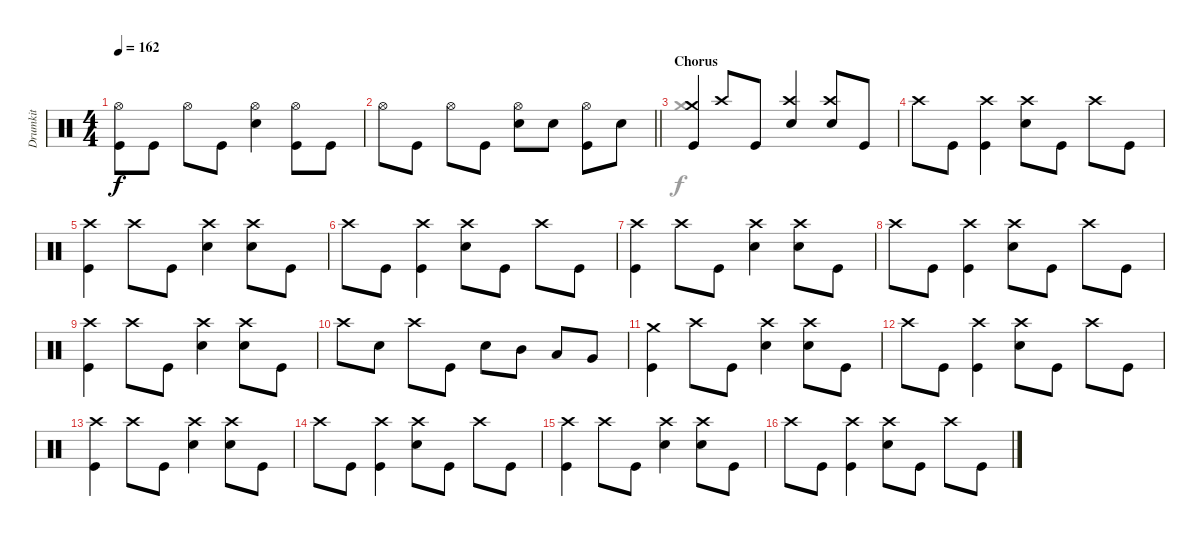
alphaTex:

\track ("Drumkit" "Drumkit") {instrument percussion}
\staff {score}
\articulation defaults
\voice
\ts (4 4)
\tempo 162
\clef neutral
\ks c
("Hi-Hat (open)" "Kick (hit)").8{dy f} "Kick (hit)".8 "Hi-Hat (open)".8 "Kick (hit)".8 ("Snare (hit) 2" "Hi-Hat (open)").4 ("Kick (hit)" "Hi-Hat (open)").8 "Kick (hit)".8 |
\barLineRight lightlight "Hi-Hat (open)".8 "Kick (hit)".8 "Hi-Hat (open)".8 "Kick (hit)".8
("Snare (hit) 2" "Hi-Hat (open)").8 "Snare (hit) 2".8 ("Hi-Hat (open)" "Kick (hit)").8 "Snare (hit) 2".8 |
\section ("" "Chorus")
("Kick (hit)" "Crash medium (hit)").4 "Crash high (hit)".8 "Kick (hit)".8 ("Snare (hit) 2" "Crash high (hit)").4 ("Snare (hit) 2" "Crash high (hit)").8 "Kick (hit)".8 |
"Crash high (hit)".8 "Kick (hit)".8 ("Kick (hit)" "Crash high (hit)").4 ("Snare (hit) 2" "Crash high (hit)").8 "Kick (hit)".8 "Crash high (hit)".8 "Kick (hit)".8 |
("Kick (hit)" "Crash high (hit)").4 "Crash high (hit)".8 "Kick (hit)".8 ("Snare (hit) 2" "Crash high (hit)").4 ("Snare (hit) 2" "Crash high (hit)").8 "Kick (hit)".8 |
"Crash high (hit)".8 "Kick (hit)".8 ("Kick (hit)" "Crash high (hit)").4 ("Snare (hit) 2" "Crash high (hit)").8 "Kick (hit)".8 "Crash high (hit)".8 "Kick (hit)".8 |
("Kick (hit)" "Crash high (hit)").4 "Crash high (hit)".8 "Kick (hit)".8 ("Snare (hit) 2" "Crash high (hit)").4 ("Snare (hit) 2" "Crash high (hit)").8 "Kick (hit)".8 |
"Crash high (hit)".8 "Kick (hit)".8 ("Kick (hit)" "Crash high (hit)").4 ("Snare (hit) 2" "Crash high (hit)").8 "Kick (hit)".8 "Crash high (hit)".8 "Kick (hit)".8 |
("Kick (hit)" "Crash high (hit)").4 "Crash high (hit)".8 "Kick (hit)".8 ("Snare (hit) 2" "Crash high (hit)").4 ("Snare (hit) 2" "Crash high (hit)").8 "Kick (hit)".8 |
"Crash high (hit)".8 "Snare (hit) 2".8 "Crash high (hit)".8 "Kick (hit)".8 "Snare (hit) 2".8 "Mid Tom (hit)".8 "Low Tom (hit)".8 "Very Low Tom (hit)".8 |
("Kick (hit)" "Crash medium (hit)").4 "Crash high (hit)".8 "Kick (hit)".8 ("Snare (hit) 2" "Crash high (hit)").4 ("Snare (hit) 2" "Crash high (hit)").8 "Kick (hit)".8 |
"Crash high (hit)".8 "Kick (hit)".8 ("Kick (hit)" "Crash high (hit)").4 ("Snare (hit) 2" "Crash high (hit)").8 "Kick (hit)".8 "Crash high (hit)".8 "Kick (hit)".8 |
("Kick (hit)" "Crash high (hit)").4 "Crash high (hit)".8 "Kick (hit)".8 ("Snare (hit) 2" "Crash high (hit)").4 ("Snare (hit) 2" "Crash high (hit)").8 "Kick (hit)".8 |
"Crash high (hit)".8 "Kick (hit)".8 ("Kick (hit)" "Crash high (hit)").4 ("Snare (hit) 2" "Crash high (hit)").8 "Kick (hit)".8 "Crash high (hit)".8 "Kick (hit)".8 |
("Kick (hit)" "Crash high (hit)").4 "Crash high (hit)".8 "Kick (hit)".8 ("Snare (hit) 2" "Crash high (hit)").4 ("Snare (hit) 2" "Crash high (hit)").8 "Kick (hit)".8 |
"Crash high (hit)".8 "Kick (hit)".8 ("Kick (hit)" "Crash high (hit)").4 ("Snare (hit) 2" "Crash high (hit)").8 "Kick (hit)".8 "Crash high (hit)".8 "Kick (hit)".8
\voice
\clef neutral
\ottava regular
\simile none
\ks c
|
\barLineRight lightlight
|
"Crash medium (hit)".1 |
|
|
|
|
|
|
|
|
|
|
|
|
